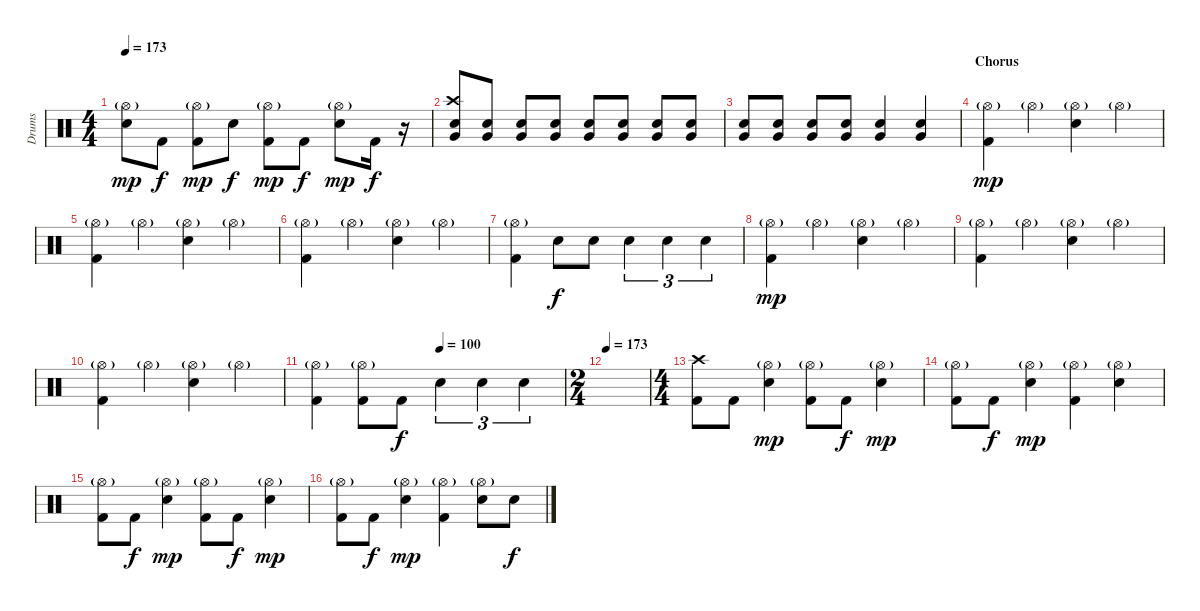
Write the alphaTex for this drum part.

\track ("Drums" "Drums") {instrument percussion}
\staff {score}
\articulation defaults
\ts (4 4)
\tempo 173
\clef neutral
\ks c
("Hi-Hat (open)"{g} "Snare (hit) 2").8{dy mp} "Kick (hit) 2".8{dy f} ("Hi-Hat (open)"{g} "Kick (hit) 2").8{dy mp} "Snare (hit) 2".8{dy f} ("Hi-Hat (open)"{g} "Kick (hit) 2").8{dy mp} "Kick (hit) 2".8{dy f} ("Hi-Hat (open)"{g} "Snare (hit) 2").8{dy mp} "Kick (hit) 2".16{dy f} r.16{volume 4} |
("Crash high (hit)" "Very Low Tom (hit)" "Snare (hit) 2").8{volume 10} ("Very Low Tom (hit)" "Snare (hit) 2").8 ("Very Low Tom (hit)" "Snare (hit) 2").8 ("Very Low Tom (hit)" "Snare (hit) 2").8 ("Very Low Tom (hit)" "Snare (hit) 2").8 ("Very Low Tom (hit)" "Snare (hit) 2").8 ("Very Low Tom (hit)" "Snare (hit) 2").8 ("Very Low Tom (hit)" "Snare (hit) 2").8 |
("Very Low Tom (hit)" "Snare (hit) 2").8 ("Very Low Tom (hit)" "Snare (hit) 2").8 ("Very Low Tom (hit)" "Snare (hit) 2").8 ("Very Low Tom (hit)" "Snare (hit) 2").8 ("Very Low Tom (hit)" "Snare (hit) 2").4 ("Very Low Tom (hit)" "Snare (hit) 2").4 |
\section ("" "Chorus")
("Hi-Hat (open)"{g} "Kick (hit) 2").4{dy mp} "Hi-Hat (open)"{g}.4 ("Hi-Hat (open)"{g} "Snare (hit) 2").4 "Hi-Hat (open)"{g}.4 |
("Hi-Hat (open)"{g} "Kick (hit) 2").4 "Hi-Hat (open)"{g}.4 ("Hi-Hat (open)"{g} "Snare (hit) 2").4 "Hi-Hat (open)"{g}.4 |
("Hi-Hat (open)"{g} "Kick (hit) 2").4 "Hi-Hat (open)"{g}.4 ("Hi-Hat (open)"{g} "Snare (hit) 2").4 "Hi-Hat (open)"{g}.4 |
("Hi-Hat (open)"{g} "Kick (hit) 2").4 "Snare (hit) 2".8{dy f} "Snare (hit) 2".8 "Snare (hit) 2".4{tu (3 2)} "Snare (hit) 2".4{tu (3 2)} "Snare (hit) 2".4{tu (3 2)} |
("Hi-Hat (open)"{g} "Kick (hit) 2").4{dy mp} "Hi-Hat (open)"{g}.4 ("Hi-Hat (open)"{g} "Snare (hit) 2").4 "Hi-Hat (open)"{g}.4 |
("Hi-Hat (open)"{g} "Kick (hit) 2").4 "Hi-Hat (open)"{g}.4 ("Hi-Hat (open)"{g} "Snare (hit) 2").4 "Hi-Hat (open)"{g}.4 |
("Hi-Hat (open)"{g} "Kick (hit) 2").4 "Hi-Hat (open)"{g}.4 ("Hi-Hat (open)"{g} "Snare (hit) 2").4 "Hi-Hat (open)"{g}.4 |
\tempo (100 0.5)
("Hi-Hat (open)"{g} "Kick (hit) 2").4 ("Hi-Hat (open)"{g} "Kick (hit) 2").8 "Kick (hit) 2".8{dy f} "Snare (hit) 2".4{tu (3 2)} "Snare (hit) 2".4{tu (3 2)} "Snare (hit) 2".4{tu (3 2)} |
\ts (2 4)
\tempo 173
|
\ts (4 4)
("Crash high (hit)" "Kick (hit) 2").8 "Kick (hit) 2".8 ("Hi-Hat (open)"{g} "Snare (hit) 2").4{dy mp} ("Hi-Hat (open)"{g} "Kick (hit) 2").8 "Kick (hit) 2".8{dy f} ("Hi-Hat (open)"{g} "Snare (hit) 2").4{dy mp} |
("Hi-Hat (open)"{g} "Kick (hit) 2").8 "Kick (hit) 2".8{dy f} ("Hi-Hat (open)"{g} "Snare (hit) 2").4{dy mp} ("Hi-Hat (open)"{g} "Kick (hit) 2").4 ("Hi-Hat (open)"{g} "Snare (hit) 2").4 |
("Hi-Hat (open)"{g} "Kick (hit) 2").8 "Kick (hit) 2".8{dy f} ("Hi-Hat (open)"{g} "Snare (hit) 2").4{dy mp} ("Hi-Hat (open)"{g} "Kick (hit) 2").8 "Kick (hit) 2".8{dy f} ("Hi-Hat (open)"{g} "Snare (hit) 2").4{dy mp} |
("Hi-Hat (open)"{g} "Kick (hit) 2").8 "Kick (hit) 2".8{dy f} ("Hi-Hat (open)"{g} "Snare (hit) 2").4{dy mp} ("Hi-Hat (open)"{g} "Kick (hit) 2").4 ("Hi-Hat (open)"{g} "Snare (hit) 2").8 "Snare (hit) 2".8{dy f}
